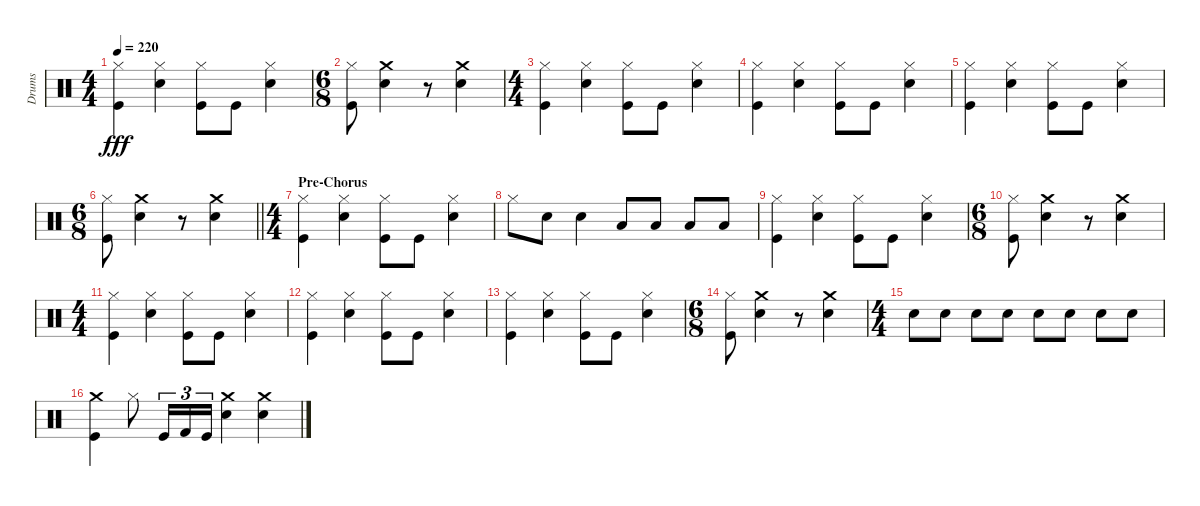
\track ("Drums" "Drums") {instrument percussion}
\staff {score}
\articulation defaults
\ts (4 4)
\tempo 220
\clef neutral
\ks c
("Kick (hit)" "Hi-Hat (closed)").4{dy fff} ("Snare (hit) 2" "Hi-Hat (closed)").4 ("Kick (hit)" "Hi-Hat (closed)").8 "Kick (hit)".8 ("Snare (hit) 2" "Hi-Hat (closed)").4 |
\ts (6 8)
("Hi-Hat (closed)" "Kick (hit)").8 ("Snare (hit) 2" "Crash medium (hit)").4 r.8 ("Snare (hit) 2" "Crash medium (hit)").4 |
\ts (4 4)
("Kick (hit)" "Hi-Hat (closed)").4 ("Snare (hit) 2" "Hi-Hat (closed)").4 ("Kick (hit)" "Hi-Hat (closed)").8 "Kick (hit)".8 ("Snare (hit) 2" "Hi-Hat (closed)").4 |
("Hi-Hat (closed)" "Kick (hit)").4 ("Snare (hit) 2" "Hi-Hat (closed)").4 ("Kick (hit)" "Hi-Hat (closed)").8 "Kick (hit)".8 ("Snare (hit) 2" "Hi-Hat (closed)").4 |
("Kick (hit)" "Hi-Hat (closed)").4 ("Snare (hit) 2" "Hi-Hat (closed)").4 ("Hi-Hat (closed)" "Kick (hit)").8 "Kick (hit)".8 ("Snare (hit) 2" "Hi-Hat (closed)").4 |
\ts (6 8)
\barLineRight lightlight
("Hi-Hat (closed)" "Kick (hit)").8 ("Snare (hit) 2" "Crash medium (hit)").4 r.8 ("Snare (hit) 2" "Crash medium (hit)").4 |
\ts (4 4)
\section ("" "Pre-Chorus")
("Kick (hit)" "Hi-Hat (closed)").4 ("Snare (hit) 2" "Hi-Hat (closed)").4 ("Kick (hit)" "Hi-Hat (closed)").8 "Kick (hit)".8 ("Snare (hit) 2" "Hi-Hat (closed)").4 |
"Hi-Hat (closed)".8 "Snare (hit) 2".8 "Snare (hit) 2".4 "Low Tom (hit)".8 "Low Tom (hit)".8 "Low Tom (hit)".8 "Low Tom (hit)".8 |
("Kick (hit)" "Hi-Hat (closed)").4 ("Hi-Hat (closed)" "Snare (hit) 2").4 ("Kick (hit)" "Hi-Hat (closed)").8 "Kick (hit)".8 ("Snare (hit) 2" "Hi-Hat (closed)").4 |
\ts (6 8)
("Hi-Hat (closed)" "Kick (hit)").8 ("Snare (hit) 2" "Crash medium (hit)").4 r.8 ("Snare (hit) 2" "Crash medium (hit)").4 |
\ts (4 4)
("Hi-Hat (closed)" "Kick (hit)").4 ("Snare (hit) 2" "Hi-Hat (closed)").4 ("Kick (hit)" "Hi-Hat (closed)").8 "Kick (hit)".8 ("Snare (hit) 2" "Hi-Hat (closed)").4 |
("Kick (hit)" "Hi-Hat (closed)").4 ("Snare (hit) 2" "Hi-Hat (closed)").4 ("Hi-Hat (closed)" "Kick (hit)").8 "Kick (hit)".8 ("Snare (hit) 2" "Hi-Hat (closed)").4 |
("Kick (hit)" "Hi-Hat (closed)").4 ("Snare (hit) 2" "Hi-Hat (closed)").4 ("Kick (hit)" "Hi-Hat (closed)").8 "Kick (hit)".8 ("Hi-Hat (closed)" "Snare (hit) 2").4 |
\ts (6 8)
("Hi-Hat (closed)" "Kick (hit)").8 ("Snare (hit) 2" "Crash medium (hit)").4 r.8 ("Snare (hit) 2" "Crash medium (hit)").4 |
\ts (4 4)
"Snare (hit) 2".8 "Snare (hit) 2".8 "Snare (hit) 2".8 "Snare (hit) 2".8 "Snare (hit) 2".8 "Snare (hit) 2".8 "Snare (hit) 2".8 "Snare (hit) 2".8 |
("Crash medium (hit)" "Kick (hit)").4 "Hi-Hat (closed)".8 "Kick (hit)".16{tu (3 2)} "Kick (hit) 2".16{tu (3 2)} "Kick (hit)".16{tu (3 2)} ("Crash medium (hit)" "Snare (hit) 2").4 ("Crash medium (hit)" "Snare (hit) 2").4
